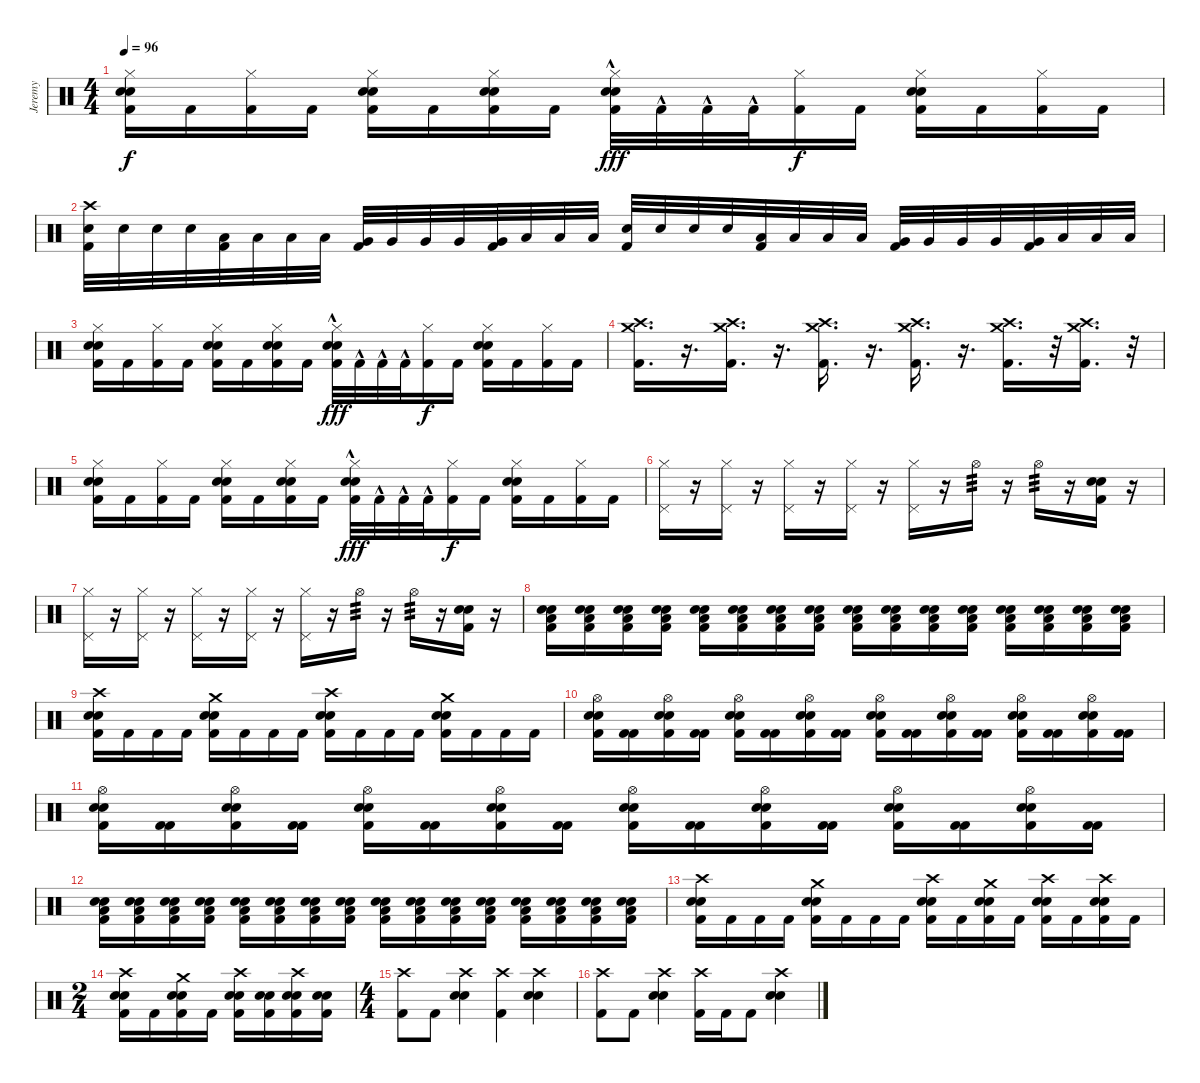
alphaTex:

\track ("Jeremy" "Jeremy") {instrument percussion}
\staff {score}
\articulation defaults
\ts (4 4)
\tempo 96
\clef neutral
\ks c
("Hi-Hat (closed)" "Electric Snare (hit)" "Snare (hit) 2" "Kick (hit) 2").16{dy f} "Kick (hit) 2".16 ("Hi-Hat (closed)" "Kick (hit) 2").16 "Kick (hit) 2".16 ("Hi-Hat (closed)" "Electric Snare (hit)" "Snare (hit) 2" "Kick (hit) 2").16 "Kick (hit) 2".16 ("Hi-Hat (closed)" "Electric Snare (hit)" "Snare (hit) 2" "Kick (hit) 2").16 "Kick (hit) 2".16 ("Hi-Hat (closed)" "Electric Snare (hit)" "Snare (hit) 2" "Kick (hit) 2"{hac}).32{dy fff} "Kick (hit) 2"{hac}.32 "Kick (hit) 2"{hac}.32 "Kick (hit) 2"{hac}.32 ("Hi-Hat (closed)" "Kick (hit) 2").16{dy f} "Kick (hit) 2".16 ("Hi-Hat (closed)" "Electric Snare (hit)" "Snare (hit) 2" "Kick (hit) 2").16 "Kick (hit) 2".16 ("Hi-Hat (closed)" "Kick (hit) 2").16 "Kick (hit) 2".16 |
("Crash high (hit)" "Electric Snare (hit)" "Kick (hit) 2").32 "Electric Snare (hit)".32 "Electric Snare (hit)".32 "Electric Snare (hit)".32 ("Low Tom (hit)" "Kick (hit) 2").32 "Low Tom (hit)".32 "Low Tom (hit)".32 "Low Tom (hit)".32 ("Very Low Tom (hit)" "Kick (hit) 2").32 "Very Low Tom (hit)".32 "Very Low Tom (hit)".32 "Very Low Tom (hit)".32 ("Very Low Tom (hit)" "Kick (hit) 2").32 "Low Floor Tom (hit)".32 "Low Floor Tom (hit)".32 "Low Floor Tom (hit)".32 ("Electric Snare (hit)" "Kick (hit) 2").32 "Electric Snare (hit)".32 "Electric Snare (hit)".32 "Electric Snare (hit)".32 ("Low Tom (hit)" "Kick (hit) 2").32 "Low Tom (hit)".32 "Low Tom (hit)".32 "Low Tom (hit)".32 ("Very Low Tom (hit)" "Kick (hit) 2").32 "Very Low Tom (hit)".32 "Very Low Tom (hit)".32 "Very Low Tom (hit)".32 ("Very Low Tom (hit)" "Kick (hit) 2").32 "Low Floor Tom (hit)".32 "Low Floor Tom (hit)".32 "Low Floor Tom (hit)".32 |
("Hi-Hat (closed)" "Electric Snare (hit)" "Snare (hit) 2" "Kick (hit) 2").16 "Kick (hit) 2".16 ("Hi-Hat (closed)" "Kick (hit) 2").16 "Kick (hit) 2".16 ("Hi-Hat (closed)" "Electric Snare (hit)" "Snare (hit) 2" "Kick (hit) 2").16 "Kick (hit) 2".16 ("Hi-Hat (closed)" "Electric Snare (hit)" "Snare (hit) 2" "Kick (hit) 2").16 "Kick (hit) 2".16 ("Hi-Hat (closed)" "Electric Snare (hit)" "Snare (hit) 2" "Kick (hit) 2"{hac}).32{dy fff} "Kick (hit) 2"{hac}.32 "Kick (hit) 2"{hac}.32 "Kick (hit) 2"{hac}.32 ("Hi-Hat (closed)" "Kick (hit) 2").16{dy f} "Kick (hit) 2".16 ("Hi-Hat (closed)" "Electric Snare (hit)" "Snare (hit) 2" "Kick (hit) 2").16 "Kick (hit) 2".16 ("Hi-Hat (closed)" "Kick (hit) 2").16 "Kick (hit) 2".16 |
("Crash high (hit)" "Crash medium (hit)" "Kick (hit) 2").16{d} r.16{d} ("Crash medium (hit)" "Crash high (hit)" "Kick (hit) 2").16{d} r.16{d} ("Crash medium (hit)" "Crash high (hit)" "Kick (hit) 2").16{d} r.16{d} ("Crash medium (hit)" "Crash high (hit)" "Kick (hit) 2").16{d} r.16{d} ("Crash medium (hit)" "Crash high (hit)" "Kick (hit) 2").16{d} r.32 ("Crash medium (hit)" "Crash high (hit)" "Kick (hit) 2").16{d} r.32 |
("Hi-Hat (closed)" "Electric Snare (hit)" "Snare (hit) 2" "Kick (hit) 2").16 "Kick (hit) 2".16 ("Hi-Hat (closed)" "Kick (hit) 2").16 "Kick (hit) 2".16 ("Hi-Hat (closed)" "Electric Snare (hit)" "Snare (hit) 2" "Kick (hit) 2").16 "Kick (hit) 2".16 ("Hi-Hat (closed)" "Electric Snare (hit)" "Snare (hit) 2" "Kick (hit) 2").16 "Kick (hit) 2".16 ("Hi-Hat (closed)" "Electric Snare (hit)" "Snare (hit) 2" "Kick (hit) 2"{hac}).32{dy fff} "Kick (hit) 2"{hac}.32 "Kick (hit) 2"{hac}.32 "Kick (hit) 2"{hac}.32 ("Hi-Hat (closed)" "Kick (hit) 2").16{dy f} "Kick (hit) 2".16 ("Hi-Hat (closed)" "Electric Snare (hit)" "Snare (hit) 2" "Kick (hit) 2").16 "Kick (hit) 2".16 ("Hi-Hat (closed)" "Kick (hit) 2").16 "Kick (hit) 2".16 |
("Hi-Hat (closed)" "Pedal Hi-Hat (hit)").16 r.16 ("Hi-Hat (closed)" "Pedal Hi-Hat (hit)").16 r.16 ("Hi-Hat (closed)" "Pedal Hi-Hat (hit)").16 r.16 ("Hi-Hat (closed)" "Pedal Hi-Hat (hit)").16 r.16 ("Hi-Hat (closed)" "Pedal Hi-Hat (hit)").16 r.16 "Hi-Hat (open)".16{tp 3} r.16 "Hi-Hat (open)".16{tp 3} r.16 ("Electric Snare (hit)" "Snare (hit) 2" "Kick (hit) 2").16 r.16 |
("Hi-Hat (closed)" "Pedal Hi-Hat (hit)").16 r.16 ("Hi-Hat (closed)" "Pedal Hi-Hat (hit)").16 r.16 ("Hi-Hat (closed)" "Pedal Hi-Hat (hit)").16 r.16 ("Hi-Hat (closed)" "Pedal Hi-Hat (hit)").16 r.16 ("Hi-Hat (closed)" "Pedal Hi-Hat (hit)").16 r.16 "Hi-Hat (open)".16{tp 3} r.16 "Hi-Hat (open)".16{tp 3} r.16 ("Electric Snare (hit)" "Snare (hit) 2" "Kick (hit) 2").16 r.16 |
("Snare (hit) 2" "Electric Snare (hit)" "Low Floor Tom (hit)" "Kick (hit) 2").16{volume 7} ("Snare (hit) 2" "Electric Snare (hit)" "Low Floor Tom (hit)" "Kick (hit) 2").16{volume 15} ("Snare (hit) 2" "Electric Snare (hit)" "Low Floor Tom (hit)" "Kick (hit) 2").16 ("Snare (hit) 2" "Electric Snare (hit)" "Low Floor Tom (hit)" "Kick (hit) 2").16 ("Snare (hit) 2" "Electric Snare (hit)" "Low Floor Tom (hit)" "Kick (hit) 2").16 ("Snare (hit) 2" "Electric Snare (hit)" "Low Floor Tom (hit)" "Kick (hit) 2").16 ("Snare (hit) 2" "Electric Snare (hit)" "Low Floor Tom (hit)" "Kick (hit) 2").16 ("Snare (hit) 2" "Electric Snare (hit)" "Low Floor Tom (hit)" "Kick (hit) 2").16 ("Snare (hit) 2" "Electric Snare (hit)" "Low Floor Tom (hit)" "Kick (hit) 2").16 ("Snare (hit) 2" "Electric Snare (hit)" "Low Floor Tom (hit)" "Kick (hit) 2").16 ("Snare (hit) 2" "Electric Snare (hit)" "Low Floor Tom (hit)" "Kick (hit) 2").16 ("Snare (hit) 2" "Electric Snare (hit)" "Low Floor Tom (hit)" "Kick (hit) 2").16 ("Snare (hit) 2" "Electric Snare (hit)" "Low Floor Tom (hit)" "Kick (hit) 2").16 ("Snare (hit) 2" "Electric Snare (hit)" "Low Floor Tom (hit)" "Kick (hit) 2").16 ("Snare (hit) 2" "Electric Snare (hit)" "Low Floor Tom (hit)" "Kick (hit) 2").16 ("Snare (hit) 2" "Electric Snare (hit)" "Low Floor Tom (hit)" "Kick (hit) 2").16 |
("Crash high (hit)" "Electric Snare (hit)" "Snare (hit) 2" "Kick (hit) 2").16 "Kick (hit) 2".16 "Kick (hit) 2".16 "Kick (hit) 2".16 ("Crash medium (hit)" "Electric Snare (hit)" "Snare (hit) 2" "Kick (hit) 2").16 "Kick (hit) 2".16 "Kick (hit) 2".16 "Kick (hit) 2".16 ("Crash high (hit)" "Electric Snare (hit)" "Snare (hit) 2" "Kick (hit) 2").16 "Kick (hit) 2".16 "Kick (hit) 2".16 "Kick (hit) 2".16 ("Crash medium (hit)" "Electric Snare (hit)" "Snare (hit) 2" "Kick (hit) 2").16 "Kick (hit) 2".16 "Kick (hit) 2".16 "Kick (hit) 2".16 |
("Hi-Hat (open)" "Electric Snare (hit)" "Snare (hit) 2" "Kick (hit) 2").16 ("Kick (hit) 2" "Kick (hit) 2").16 ("Hi-Hat (open)" "Electric Snare (hit)" "Snare (hit) 2" "Kick (hit) 2").16 ("Kick (hit) 2" "Kick (hit) 2").16 ("Hi-Hat (open)" "Electric Snare (hit)" "Snare (hit) 2" "Kick (hit) 2").16 ("Kick (hit) 2" "Kick (hit) 2").16 ("Hi-Hat (open)" "Electric Snare (hit)" "Snare (hit) 2" "Kick (hit) 2").16 ("Kick (hit) 2" "Kick (hit) 2").16 ("Hi-Hat (open)" "Electric Snare (hit)" "Snare (hit) 2" "Kick (hit) 2").16 ("Kick (hit) 2" "Kick (hit) 2").16 ("Hi-Hat (open)" "Electric Snare (hit)" "Snare (hit) 2" "Kick (hit) 2").16 ("Kick (hit) 2" "Kick (hit) 2").16 ("Hi-Hat (open)" "Electric Snare (hit)" "Snare (hit) 2" "Kick (hit) 2").16 ("Kick (hit) 2" "Kick (hit) 2").16 ("Hi-Hat (open)" "Electric Snare (hit)" "Snare (hit) 2" "Kick (hit) 2").16 ("Kick (hit) 2" "Kick (hit) 2").16 |
("Hi-Hat (open)" "Electric Snare (hit)" "Snare (hit) 2" "Kick (hit) 2").16 ("Kick (hit) 2" "Kick (hit) 2").16 ("Hi-Hat (open)" "Electric Snare (hit)" "Snare (hit) 2" "Kick (hit) 2").16 ("Kick (hit) 2" "Kick (hit) 2").16 ("Hi-Hat (open)" "Electric Snare (hit)" "Snare (hit) 2" "Kick (hit) 2").16 ("Kick (hit) 2" "Kick (hit) 2").16 ("Hi-Hat (open)" "Electric Snare (hit)" "Snare (hit) 2" "Kick (hit) 2").16 ("Kick (hit) 2" "Kick (hit) 2").16 ("Hi-Hat (open)" "Electric Snare (hit)" "Snare (hit) 2" "Kick (hit) 2").16 ("Kick (hit) 2" "Kick (hit) 2").16 ("Hi-Hat (open)" "Electric Snare (hit)" "Snare (hit) 2" "Kick (hit) 2").16 ("Kick (hit) 2" "Kick (hit) 2").16 ("Hi-Hat (open)" "Electric Snare (hit)" "Snare (hit) 2" "Kick (hit) 2").16 ("Kick (hit) 2" "Kick (hit) 2").16 ("Hi-Hat (open)" "Electric Snare (hit)" "Snare (hit) 2" "Kick (hit) 2").16 ("Kick (hit) 2" "Kick (hit) 2").16 |
("Snare (hit) 2" "Electric Snare (hit)" "Low Floor Tom (hit)" "Kick (hit) 2").16{volume 7} ("Snare (hit) 2" "Electric Snare (hit)" "Low Floor Tom (hit)" "Kick (hit) 2").16{volume 15} ("Snare (hit) 2" "Electric Snare (hit)" "Low Floor Tom (hit)" "Kick (hit) 2").16 ("Snare (hit) 2" "Electric Snare (hit)" "Low Floor Tom (hit)" "Kick (hit) 2").16 ("Snare (hit) 2" "Electric Snare (hit)" "Low Floor Tom (hit)" "Kick (hit) 2").16 ("Snare (hit) 2" "Electric Snare (hit)" "Low Floor Tom (hit)" "Kick (hit) 2").16 ("Snare (hit) 2" "Electric Snare (hit)" "Low Floor Tom (hit)" "Kick (hit) 2").16 ("Snare (hit) 2" "Electric Snare (hit)" "Low Floor Tom (hit)" "Kick (hit) 2").16 ("Snare (hit) 2" "Electric Snare (hit)" "Low Floor Tom (hit)" "Kick (hit) 2").16 ("Snare (hit) 2" "Electric Snare (hit)" "Low Floor Tom (hit)" "Kick (hit) 2").16 ("Snare (hit) 2" "Electric Snare (hit)" "Low Floor Tom (hit)" "Kick (hit) 2").16 ("Snare (hit) 2" "Electric Snare (hit)" "Low Floor Tom (hit)" "Kick (hit) 2").16 ("Snare (hit) 2" "Electric Snare (hit)" "Low Floor Tom (hit)" "Kick (hit) 2").16 ("Snare (hit) 2" "Electric Snare (hit)" "Low Floor Tom (hit)" "Kick (hit) 2").16 ("Snare (hit) 2" "Electric Snare (hit)" "Low Floor Tom (hit)" "Kick (hit) 2").16 ("Snare (hit) 2" "Electric Snare (hit)" "Low Floor Tom (hit)" "Kick (hit) 2").16 |
("Crash high (hit)" "Electric Snare (hit)" "Snare (hit) 2" "Kick (hit) 2").16 "Kick (hit) 2".16 "Kick (hit) 2".16 "Kick (hit) 2".16 ("Crash medium (hit)" "Electric Snare (hit)" "Snare (hit) 2" "Kick (hit) 2").16 "Kick (hit) 2".16 "Kick (hit) 2".16 "Kick (hit) 2".16 ("Crash high (hit)" "Electric Snare (hit)" "Snare (hit) 2" "Kick (hit) 2").16 "Kick (hit) 2".16 ("Crash medium (hit)" "Electric Snare (hit)" "Snare (hit) 2" "Kick (hit) 2").16 "Kick (hit) 2".16 ("Crash high (hit)" "Electric Snare (hit)" "Snare (hit) 2" "Kick (hit) 2").16 "Kick (hit) 2".16 ("Crash high (hit)" "Electric Snare (hit)" "Snare (hit) 2" "Kick (hit) 2").16 "Kick (hit) 2".16 |
\ts (2 4)
("Crash high (hit)" "Electric Snare (hit)" "Snare (hit) 2" "Kick (hit) 2").16 "Kick (hit) 2".16 ("Crash medium (hit)" "Electric Snare (hit)" "Snare (hit) 2" "Kick (hit) 2").16 "Kick (hit) 2".16 ("Crash high (hit)" "Electric Snare (hit)" "Snare (hit) 2" "Kick (hit) 2").16 ("Electric Snare (hit)" "Snare (hit) 2" "Kick (hit) 2").16 ("Crash high (hit)" "Electric Snare (hit)" "Snare (hit) 2" "Kick (hit) 2").16 ("Electric Snare (hit)" "Snare (hit) 2" "Kick (hit) 2").16 |
\ts (4 4)
("Crash high (hit)" "Kick (hit) 2").8 "Kick (hit) 2".8 ("Crash high (hit)" "Electric Snare (hit)" "Snare (hit) 2").4 ("Crash high (hit)" "Kick (hit) 2").4 ("Crash high (hit)" "Electric Snare (hit)" "Snare (hit) 2").4 |
("Crash high (hit)" "Kick (hit) 2").8 "Kick (hit) 2".8 ("Crash high (hit)" "Electric Snare (hit)" "Snare (hit) 2").4 ("Kick (hit) 2" "Crash high (hit)").16 "Kick (hit) 2".16 "Kick (hit) 2".8 ("Crash high (hit)" "Electric Snare (hit)" "Snare (hit) 2").4
